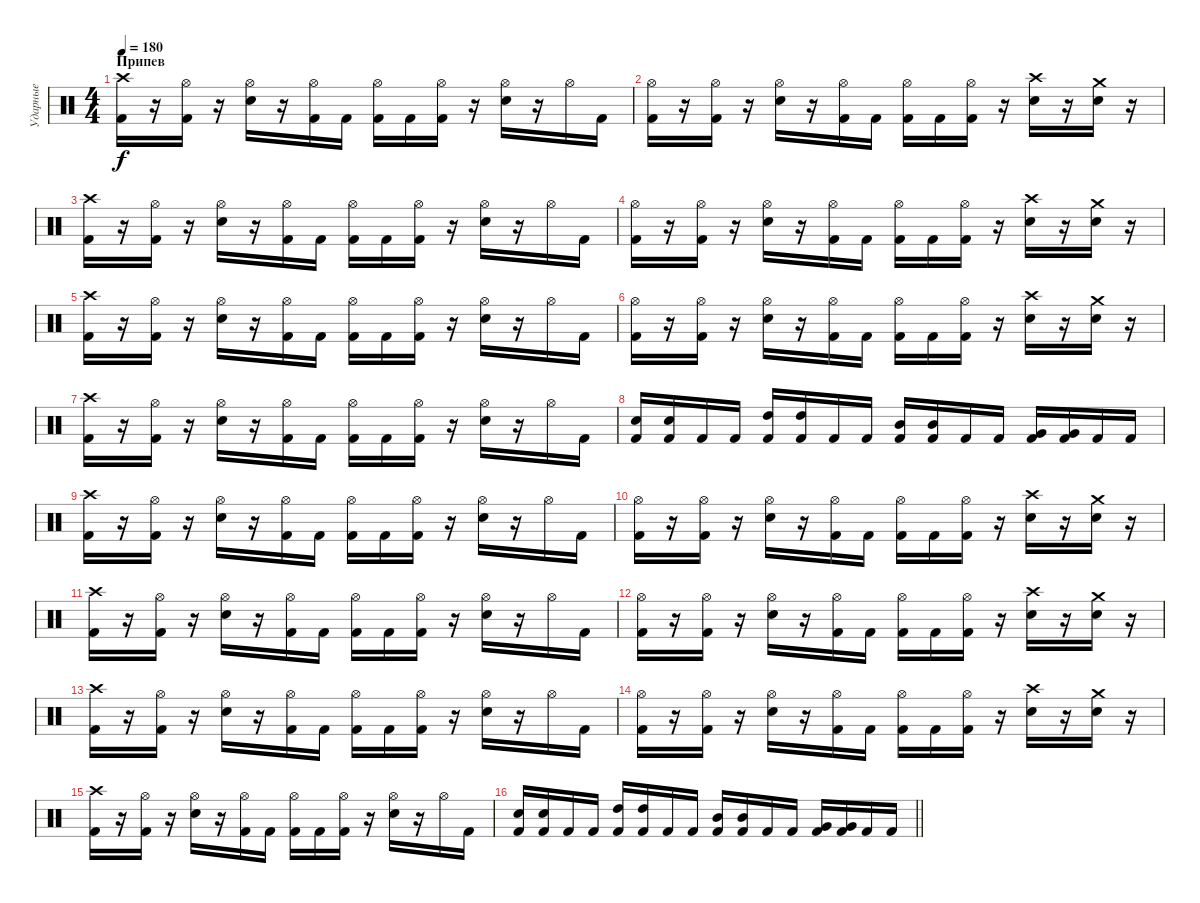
\track ("Ударные" "Ударные") {instrument percussion}
\staff {score}
\articulation defaults
\ts (4 4)
\section ("" "Припев")
\tempo 180
\clef neutral
\ks c
("Crash high (hit)" "Kick (hit) 2").16{dy f} r.16 ("Hi-Hat (open)" "Kick (hit) 2").16 r.16 ("Hi-Hat (open)" "Electric Snare (hit)").16 r.16 ("Hi-Hat (open)" "Kick (hit) 2").16 "Kick (hit) 2".16 ("Hi-Hat (open)" "Kick (hit) 2").16 "Kick (hit) 2".16 ("Hi-Hat (open)" "Kick (hit) 2").16 r.16 ("Hi-Hat (open)" "Electric Snare (hit)").16 r.16 "Hi-Hat (open)".16 "Kick (hit) 2".16 |
("Hi-Hat (open)" "Kick (hit) 2").16 r.16 ("Hi-Hat (open)" "Kick (hit) 2").16 r.16 ("Hi-Hat (open)" "Electric Snare (hit)").16 r.16 ("Hi-Hat (open)" "Kick (hit) 2").16 "Kick (hit) 2".16 ("Hi-Hat (open)" "Kick (hit) 2").16 "Kick (hit) 2".16 ("Hi-Hat (open)" "Kick (hit) 2").16 r.16 ("Crash high (hit)" "Electric Snare (hit)").16 r.16 ("Crash medium (hit)" "Electric Snare (hit)").16 r.16 |
("Crash high (hit)" "Kick (hit) 2").16 r.16 ("Hi-Hat (open)" "Kick (hit) 2").16 r.16 ("Hi-Hat (open)" "Electric Snare (hit)").16 r.16 ("Hi-Hat (open)" "Kick (hit) 2").16 "Kick (hit) 2".16 ("Hi-Hat (open)" "Kick (hit) 2").16 "Kick (hit) 2".16 ("Hi-Hat (open)" "Kick (hit) 2").16 r.16 ("Hi-Hat (open)" "Electric Snare (hit)").16 r.16 "Hi-Hat (open)".16 "Kick (hit) 2".16 |
("Hi-Hat (open)" "Kick (hit) 2").16 r.16 ("Hi-Hat (open)" "Kick (hit) 2").16 r.16 ("Hi-Hat (open)" "Electric Snare (hit)").16 r.16 ("Hi-Hat (open)" "Kick (hit) 2").16 "Kick (hit) 2".16 ("Hi-Hat (open)" "Kick (hit) 2").16 "Kick (hit) 2".16 ("Hi-Hat (open)" "Kick (hit) 2").16 r.16 ("Crash high (hit)" "Electric Snare (hit)").16 r.16 ("Crash medium (hit)" "Electric Snare (hit)").16 r.16 |
("Crash high (hit)" "Kick (hit) 2").16 r.16 ("Hi-Hat (open)" "Kick (hit) 2").16 r.16 ("Hi-Hat (open)" "Electric Snare (hit)").16 r.16 ("Hi-Hat (open)" "Kick (hit) 2").16 "Kick (hit) 2".16 ("Hi-Hat (open)" "Kick (hit) 2").16 "Kick (hit) 2".16 ("Hi-Hat (open)" "Kick (hit) 2").16 r.16 ("Hi-Hat (open)" "Electric Snare (hit)").16 r.16 "Hi-Hat (open)".16 "Kick (hit) 2".16 |
("Hi-Hat (open)" "Kick (hit) 2").16 r.16 ("Hi-Hat (open)" "Kick (hit) 2").16 r.16 ("Hi-Hat (open)" "Electric Snare (hit)").16 r.16 ("Hi-Hat (open)" "Kick (hit) 2").16 "Kick (hit) 2".16 ("Hi-Hat (open)" "Kick (hit) 2").16 "Kick (hit) 2".16 ("Hi-Hat (open)" "Kick (hit) 2").16 r.16 ("Crash high (hit)" "Electric Snare (hit)").16 r.16 ("Crash medium (hit)" "Electric Snare (hit)").16 r.16 |
("Crash high (hit)" "Kick (hit) 2").16 r.16 ("Hi-Hat (open)" "Kick (hit) 2").16 r.16 ("Hi-Hat (open)" "Electric Snare (hit)").16 r.16 ("Hi-Hat (open)" "Kick (hit) 2").16 "Kick (hit) 2".16 ("Hi-Hat (open)" "Kick (hit) 2").16 "Kick (hit) 2".16 ("Hi-Hat (open)" "Kick (hit) 2").16 r.16 ("Hi-Hat (open)" "Electric Snare (hit)").16 r.16 "Hi-Hat (open)".16 "Kick (hit) 2".16 |
("Electric Snare (hit)" "Kick (hit) 2").16 ("Electric Snare (hit)" "Kick (hit) 2").16 "Kick (hit) 2".16 "Kick (hit) 2".16 ("High Tom (hit)" "Kick (hit) 2").16 ("High Tom (hit)" "Kick (hit) 2").16 "Kick (hit) 2".16 "Kick (hit) 2".16 ("Mid Tom (hit)" "Kick (hit) 2").16 ("Mid Tom (hit)" "Kick (hit) 2").16 "Kick (hit) 2".16 "Kick (hit) 2".16 ("Very Low Tom (hit)" "Kick (hit) 2").16 ("Very Low Tom (hit)" "Kick (hit) 2").16 "Kick (hit) 2".16 "Kick (hit) 2".16 |
("Crash high (hit)" "Kick (hit) 2").16 r.16 ("Hi-Hat (open)" "Kick (hit) 2").16 r.16 ("Hi-Hat (open)" "Electric Snare (hit)").16 r.16 ("Hi-Hat (open)" "Kick (hit) 2").16 "Kick (hit) 2".16 ("Hi-Hat (open)" "Kick (hit) 2").16 "Kick (hit) 2".16 ("Hi-Hat (open)" "Kick (hit) 2").16 r.16 ("Hi-Hat (open)" "Electric Snare (hit)").16 r.16 "Hi-Hat (open)".16 "Kick (hit) 2".16 |
("Hi-Hat (open)" "Kick (hit) 2").16 r.16 ("Hi-Hat (open)" "Kick (hit) 2").16 r.16 ("Hi-Hat (open)" "Electric Snare (hit)").16 r.16 ("Hi-Hat (open)" "Kick (hit) 2").16 "Kick (hit) 2".16 ("Hi-Hat (open)" "Kick (hit) 2").16 "Kick (hit) 2".16 ("Hi-Hat (open)" "Kick (hit) 2").16 r.16 ("Crash high (hit)" "Electric Snare (hit)").16 r.16 ("Crash medium (hit)" "Electric Snare (hit)").16 r.16 |
("Crash high (hit)" "Kick (hit) 2").16 r.16 ("Hi-Hat (open)" "Kick (hit) 2").16 r.16 ("Hi-Hat (open)" "Electric Snare (hit)").16 r.16 ("Hi-Hat (open)" "Kick (hit) 2").16 "Kick (hit) 2".16 ("Hi-Hat (open)" "Kick (hit) 2").16 "Kick (hit) 2".16 ("Hi-Hat (open)" "Kick (hit) 2").16 r.16 ("Hi-Hat (open)" "Electric Snare (hit)").16 r.16 "Hi-Hat (open)".16 "Kick (hit) 2".16 |
("Hi-Hat (open)" "Kick (hit) 2").16 r.16 ("Hi-Hat (open)" "Kick (hit) 2").16 r.16 ("Hi-Hat (open)" "Electric Snare (hit)").16 r.16 ("Hi-Hat (open)" "Kick (hit) 2").16 "Kick (hit) 2".16 ("Hi-Hat (open)" "Kick (hit) 2").16 "Kick (hit) 2".16 ("Hi-Hat (open)" "Kick (hit) 2").16 r.16 ("Crash high (hit)" "Electric Snare (hit)").16 r.16 ("Crash medium (hit)" "Electric Snare (hit)").16 r.16 |
("Crash high (hit)" "Kick (hit) 2").16 r.16 ("Hi-Hat (open)" "Kick (hit) 2").16 r.16 ("Hi-Hat (open)" "Electric Snare (hit)").16 r.16 ("Hi-Hat (open)" "Kick (hit) 2").16 "Kick (hit) 2".16 ("Hi-Hat (open)" "Kick (hit) 2").16 "Kick (hit) 2".16 ("Hi-Hat (open)" "Kick (hit) 2").16 r.16 ("Hi-Hat (open)" "Electric Snare (hit)").16 r.16 "Hi-Hat (open)".16 "Kick (hit) 2".16 |
("Hi-Hat (open)" "Kick (hit) 2").16 r.16 ("Hi-Hat (open)" "Kick (hit) 2").16 r.16 ("Hi-Hat (open)" "Electric Snare (hit)").16 r.16 ("Hi-Hat (open)" "Kick (hit) 2").16 "Kick (hit) 2".16 ("Hi-Hat (open)" "Kick (hit) 2").16 "Kick (hit) 2".16 ("Hi-Hat (open)" "Kick (hit) 2").16 r.16 ("Crash high (hit)" "Electric Snare (hit)").16 r.16 ("Crash medium (hit)" "Electric Snare (hit)").16 r.16 |
("Crash high (hit)" "Kick (hit) 2").16 r.16 ("Hi-Hat (open)" "Kick (hit) 2").16 r.16 ("Hi-Hat (open)" "Electric Snare (hit)").16 r.16 ("Hi-Hat (open)" "Kick (hit) 2").16 "Kick (hit) 2".16 ("Hi-Hat (open)" "Kick (hit) 2").16 "Kick (hit) 2".16 ("Hi-Hat (open)" "Kick (hit) 2").16 r.16 ("Hi-Hat (open)" "Electric Snare (hit)").16 r.16 "Hi-Hat (open)".16 "Kick (hit) 2".16 |
\barLineRight lightlight
("Electric Snare (hit)" "Kick (hit) 2").16 ("Electric Snare (hit)" "Kick (hit) 2").16 "Kick (hit) 2".16 "Kick (hit) 2".16 ("High Tom (hit)" "Kick (hit) 2").16 ("High Tom (hit)" "Kick (hit) 2").16 "Kick (hit) 2".16 "Kick (hit) 2".16 ("Mid Tom (hit)" "Kick (hit) 2").16 ("Mid Tom (hit)" "Kick (hit) 2").16 "Kick (hit) 2".16 "Kick (hit) 2".16 ("Very Low Tom (hit)" "Kick (hit) 2").16 ("Very Low Tom (hit)" "Kick (hit) 2").16 "Kick (hit) 2".16 "Kick (hit) 2".16
